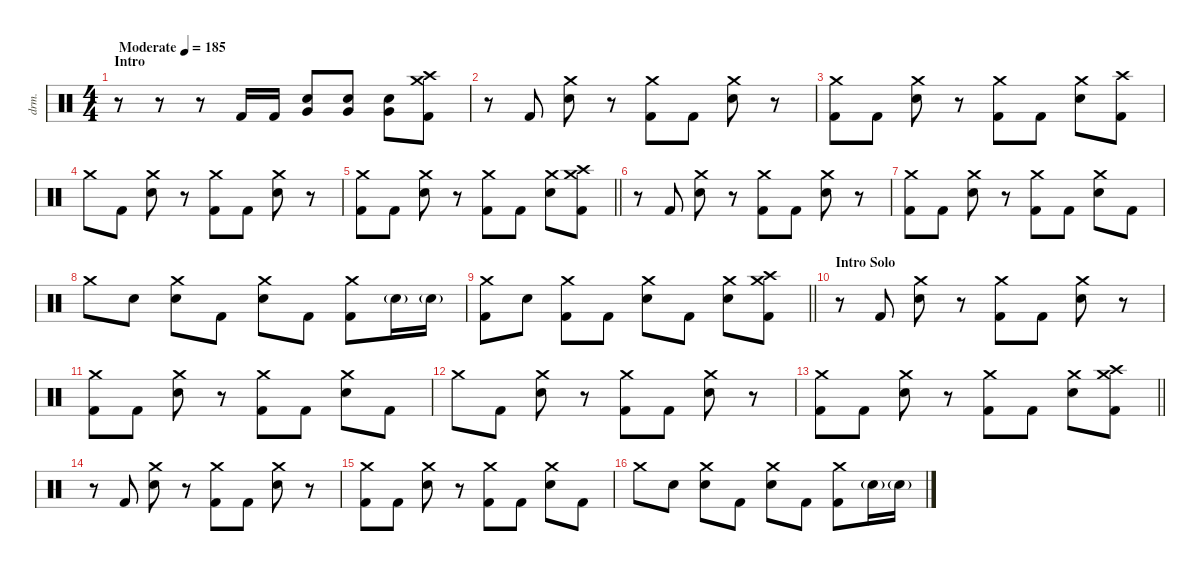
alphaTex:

\defaultSystemsLayout 4
\hideDynamics
\bracketExtendMode nobrackets
\track ("Drums - Šimon" "drm.") {instrument percussion}
\staff {score}
\articulation defaults
\ts (4 4)
\beaming (8 2 2 2 2)
\section ("" "Intro")
\tempo (185 "Moderate")
\clef neutral
\ks c
r.8{dy ff} r.8 r.8 "Kick (hit) 2".16 "Kick (hit) 2".16 ("Snare (hit) 2" "Very Low Tom (hit)").8 ("Snare (hit) 2" "Very Low Tom (hit)").8 ("Snare (hit) 2" "Very Low Tom (hit)").8 ("Crash medium (hit)" "Kick (hit) 2" "Crash high (hit)").8 |
r.8 "Kick (hit) 2".8 ("Snare (hit) 2" "Crash medium (hit)").8 r.8 ("Kick (hit) 2" "Crash medium (hit)").8 "Kick (hit) 2".8 ("Snare (hit) 2" "Crash medium (hit)").8 r.8 |
("Kick (hit) 2" "Crash medium (hit)").8 "Kick (hit) 2".8 ("Snare (hit) 2" "Crash medium (hit)").8 r.8 ("Kick (hit) 2" "Crash medium (hit)").8 "Kick (hit) 2".8 ("Snare (hit) 2" "Crash medium (hit)").8 ("Kick (hit) 2" "Crash high (hit)").8 |
"Crash medium (hit)".8 "Kick (hit) 2".8 ("Snare (hit) 2" "Crash medium (hit)").8 r.8 ("Kick (hit) 2" "Crash medium (hit)").8 "Kick (hit) 2".8 ("Snare (hit) 2" "Crash medium (hit)").8 r.8 |
\barLineRight lightlight
("Kick (hit) 2" "Crash medium (hit)").8 "Kick (hit) 2".8 ("Snare (hit) 2" "Crash medium (hit)").8 r.8 ("Kick (hit) 2" "Crash medium (hit)").8 "Kick (hit) 2".8 ("Snare (hit) 2" "Crash medium (hit)").8 ("Crash medium (hit)" "Kick (hit) 2" "Crash high (hit)").8 |
r.8 "Kick (hit) 2".8 ("Snare (hit) 2" "Crash medium (hit)").8 r.8 ("Kick (hit) 2" "Crash medium (hit)").8 "Kick (hit) 2".8 ("Snare (hit) 2" "Crash medium (hit)").8 r.8 |
("Kick (hit) 2" "Crash medium (hit)").8 "Kick (hit) 2".8 ("Snare (hit) 2" "Crash medium (hit)").8 r.8 ("Kick (hit) 2" "Crash medium (hit)").8 "Kick (hit) 2".8 ("Snare (hit) 2" "Crash medium (hit)").8 "Kick (hit) 2".8 |
"Crash medium (hit)".8 "Snare (hit) 2".8 ("Snare (hit) 2" "Crash medium (hit)").8 "Kick (hit) 2".8 ("Crash medium (hit)" "Snare (hit) 2").8 "Kick (hit) 2".8 ("Crash medium (hit)" "Kick (hit) 2").8 "Snare (hit) 2"{g}.16 "Snare (hit) 2"{g}.16 |
\barLineRight lightlight
("Kick (hit) 2" "Crash medium (hit)").8 "Snare (hit) 2".8 ("Crash medium (hit)" "Kick (hit) 2").8 "Kick (hit) 2".8 ("Crash medium (hit)" "Snare (hit) 2").8 "Kick (hit) 2".8 ("Snare (hit) 2" "Crash medium (hit)").8 ("Crash medium (hit)" "Kick (hit) 2" "Crash high (hit)").8 |
\section ("" "Intro Solo")
r.8 "Kick (hit) 2".8 ("Snare (hit) 2" "Crash medium (hit)").8 r.8 ("Kick (hit) 2" "Crash medium (hit)").8 "Kick (hit) 2".8 ("Snare (hit) 2" "Crash medium (hit)").8 r.8 |
("Kick (hit) 2" "Crash medium (hit)").8 "Kick (hit) 2".8 ("Snare (hit) 2" "Crash medium (hit)").8 r.8 ("Kick (hit) 2" "Crash medium (hit)").8 "Kick (hit) 2".8 ("Snare (hit) 2" "Crash medium (hit)").8 "Kick (hit) 2".8 |
"Crash medium (hit)".8 "Kick (hit) 2".8 ("Snare (hit) 2" "Crash medium (hit)").8 r.8 ("Kick (hit) 2" "Crash medium (hit)").8 "Kick (hit) 2".8 ("Snare (hit) 2" "Crash medium (hit)").8 r.8 |
\barLineRight lightlight
("Kick (hit) 2" "Crash medium (hit)").8 "Kick (hit) 2".8 ("Snare (hit) 2" "Crash medium (hit)").8 r.8 ("Kick (hit) 2" "Crash medium (hit)").8 "Kick (hit) 2".8 ("Snare (hit) 2" "Crash medium (hit)").8 ("Crash medium (hit)" "Kick (hit) 2" "Crash high (hit)").8 |
r.8 "Kick (hit) 2".8 ("Snare (hit) 2" "Crash medium (hit)").8 r.8 ("Kick (hit) 2" "Crash medium (hit)").8 "Kick (hit) 2".8 ("Snare (hit) 2" "Crash medium (hit)").8 r.8 |
("Kick (hit) 2" "Crash medium (hit)").8 "Kick (hit) 2".8 ("Snare (hit) 2" "Crash medium (hit)").8 r.8 ("Kick (hit) 2" "Crash medium (hit)").8 "Kick (hit) 2".8 ("Snare (hit) 2" "Crash medium (hit)").8 "Kick (hit) 2".8 |
"Crash medium (hit)".8 "Snare (hit) 2".8 ("Snare (hit) 2" "Crash medium (hit)").8 "Kick (hit) 2".8 ("Crash medium (hit)" "Snare (hit) 2").8 "Kick (hit) 2".8 ("Crash medium (hit)" "Kick (hit) 2").8 "Snare (hit) 2"{g}.16 "Snare (hit) 2"{g}.16
